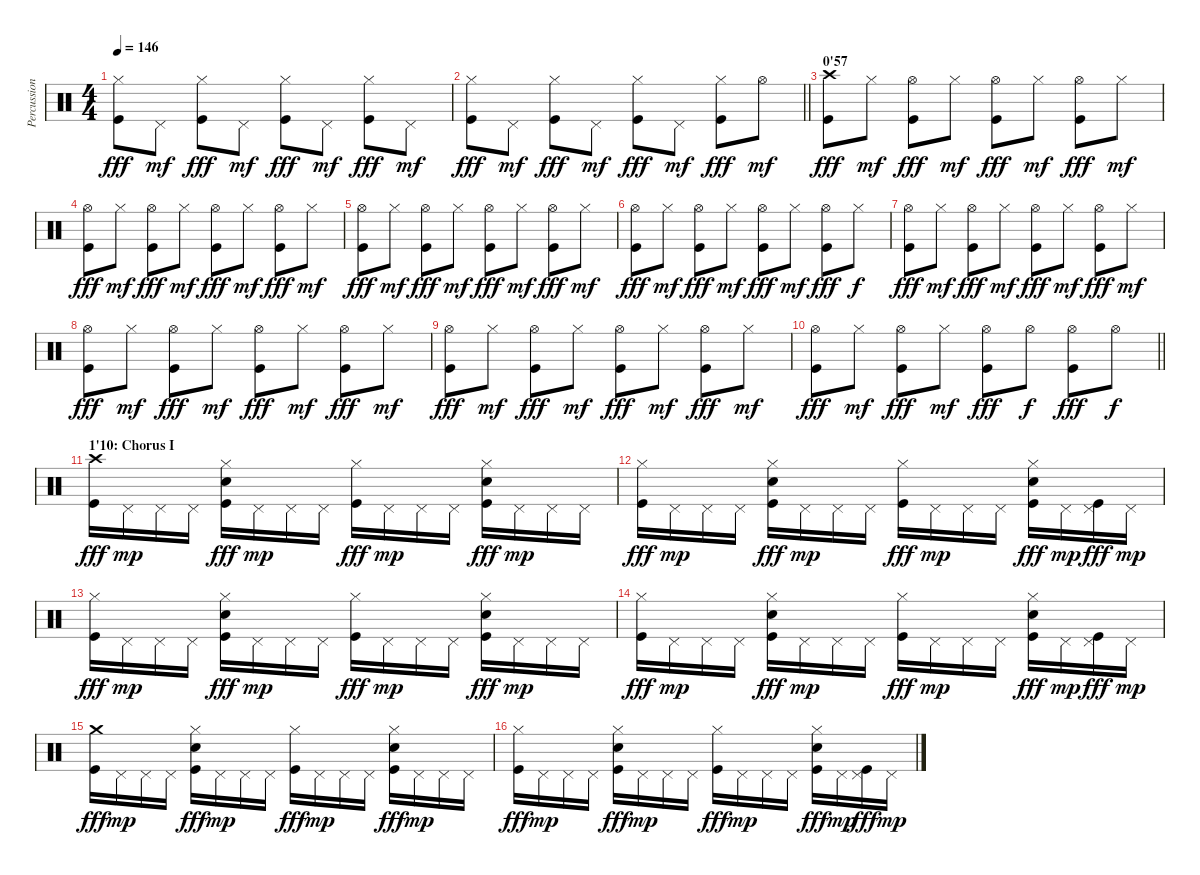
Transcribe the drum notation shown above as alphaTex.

\track ("Percussions" "Percussion") {instrument percussion}
\staff {score}
\articulation defaults
\ts (4 4)
\tempo 146
\clef neutral
\ks c
("Hi-Hat (closed)" "Kick (hit)").8{dy fff} "Pedal Hi-Hat (hit)".8{dy mf} ("Hi-Hat (closed)" "Kick (hit)").8{dy fff} "Pedal Hi-Hat (hit)".8{dy mf} ("Hi-Hat (closed)" "Kick (hit)").8{dy fff} "Pedal Hi-Hat (hit)".8{dy mf} ("Hi-Hat (closed)" "Kick (hit)").8{dy fff} "Pedal Hi-Hat (hit)".8{dy mf} |
\barLineRight lightlight
("Hi-Hat (closed)" "Kick (hit)").8{dy fff} "Pedal Hi-Hat (hit)".8{dy mf} ("Hi-Hat (closed)" "Kick (hit)").8{dy fff} "Pedal Hi-Hat (hit)".8{dy mf} ("Hi-Hat (closed)" "Kick (hit)").8{dy fff} "Pedal Hi-Hat (hit)".8{dy mf} ("Hi-Hat (closed)" "Kick (hit)").8{dy fff} "Hi-Hat (open)".8{dy mf} |
\section ("" "0'57")
("Crash high (hit)" "Kick (hit)").8{dy fff} "Hi-Hat (closed)".8{dy mf} ("Hi-Hat (open)" "Kick (hit)").8{dy fff} "Hi-Hat (closed)".8{dy mf} ("Hi-Hat (open)" "Kick (hit)").8{dy fff} "Hi-Hat (closed)".8{dy mf} ("Hi-Hat (open)" "Kick (hit)").8{dy fff} "Hi-Hat (closed)".8{dy mf} |
("Hi-Hat (open)" "Kick (hit)").8{dy fff} "Hi-Hat (closed)".8{dy mf} ("Hi-Hat (open)" "Kick (hit)").8{dy fff} "Hi-Hat (closed)".8{dy mf} ("Hi-Hat (open)" "Kick (hit)").8{dy fff} "Hi-Hat (closed)".8{dy mf} ("Hi-Hat (open)" "Kick (hit)").8{dy fff} "Hi-Hat (closed)".8{dy mf} |
("Hi-Hat (open)" "Kick (hit)").8{dy fff} "Hi-Hat (closed)".8{dy mf} ("Hi-Hat (open)" "Kick (hit)").8{dy fff} "Hi-Hat (closed)".8{dy mf} ("Hi-Hat (open)" "Kick (hit)").8{dy fff} "Hi-Hat (closed)".8{dy mf} ("Hi-Hat (open)" "Kick (hit)").8{dy fff} "Hi-Hat (closed)".8{dy mf} |
("Hi-Hat (open)" "Kick (hit)").8{dy fff} "Hi-Hat (closed)".8{dy mf} ("Hi-Hat (open)" "Kick (hit)").8{dy fff} "Hi-Hat (closed)".8{dy mf} ("Hi-Hat (open)" "Kick (hit)").8{dy fff} "Hi-Hat (closed)".8{dy mf} ("Hi-Hat (open)" "Kick (hit)").8{dy fff} "Hi-Hat (closed)".8{dy f} |
("Hi-Hat (open)" "Kick (hit)").8{dy fff} "Hi-Hat (closed)".8{dy mf} ("Hi-Hat (open)" "Kick (hit)").8{dy fff} "Hi-Hat (closed)".8{dy mf} ("Hi-Hat (open)" "Kick (hit)").8{dy fff} "Hi-Hat (closed)".8{dy mf} ("Hi-Hat (open)" "Kick (hit)").8{dy fff} "Hi-Hat (closed)".8{dy mf} |
("Hi-Hat (open)" "Kick (hit)").8{dy fff} "Hi-Hat (closed)".8{dy mf} ("Hi-Hat (open)" "Kick (hit)").8{dy fff} "Hi-Hat (closed)".8{dy mf} ("Hi-Hat (open)" "Kick (hit)").8{dy fff} "Hi-Hat (closed)".8{dy mf} ("Hi-Hat (open)" "Kick (hit)").8{dy fff} "Hi-Hat (closed)".8{dy mf} |
("Hi-Hat (open)" "Kick (hit)").8{dy fff} "Hi-Hat (closed)".8{dy mf} ("Hi-Hat (open)" "Kick (hit)").8{dy fff} "Hi-Hat (closed)".8{dy mf} ("Hi-Hat (open)" "Kick (hit)").8{dy fff} "Hi-Hat (closed)".8{dy mf} ("Hi-Hat (open)" "Kick (hit)").8{dy fff} "Hi-Hat (closed)".8{dy mf} |
\barLineRight lightlight
("Hi-Hat (open)" "Kick (hit)").8{dy fff} "Hi-Hat (closed)".8{dy mf} ("Hi-Hat (open)" "Kick (hit)").8{dy fff} "Hi-Hat (closed)".8{dy mf} ("Hi-Hat (open)" "Kick (hit)").8{dy fff} "Hi-Hat (open)".8{dy f} ("Hi-Hat (open)" "Kick (hit)").8{dy fff} "Hi-Hat (open)".8{dy f} |
\section ("" "1'10: Chorus I")
("Crash high (hit)" "Kick (hit)").16{dy fff} "Pedal Hi-Hat (hit)".16{dy mp} "Pedal Hi-Hat (hit)".16 "Pedal Hi-Hat (hit)".16 ("Hi-Hat (closed)" "Electric Snare (hit)" "Kick (hit)").16{dy fff} "Pedal Hi-Hat (hit)".16{dy mp} "Pedal Hi-Hat (hit)".16 "Pedal Hi-Hat (hit)".16 ("Hi-Hat (closed)" "Kick (hit)").16{dy fff} "Pedal Hi-Hat (hit)".16{dy mp} "Pedal Hi-Hat (hit)".16 "Pedal Hi-Hat (hit)".16 ("Hi-Hat (closed)" "Electric Snare (hit)" "Kick (hit)").16{dy fff} "Pedal Hi-Hat (hit)".16{dy mp} "Pedal Hi-Hat (hit)".16 "Pedal Hi-Hat (hit)".16 |
("Hi-Hat (closed)" "Kick (hit)").16{dy fff} "Pedal Hi-Hat (hit)".16{dy mp} "Pedal Hi-Hat (hit)".16 "Pedal Hi-Hat (hit)".16 ("Hi-Hat (closed)" "Electric Snare (hit)" "Kick (hit)").16{dy fff} "Pedal Hi-Hat (hit)".16{dy mp} "Pedal Hi-Hat (hit)".16 "Pedal Hi-Hat (hit)".16 ("Hi-Hat (closed)" "Kick (hit)").16{dy fff} "Pedal Hi-Hat (hit)".16{dy mp} "Pedal Hi-Hat (hit)".16 "Pedal Hi-Hat (hit)".16 ("Hi-Hat (closed)" "Electric Snare (hit)" "Kick (hit)").16{dy fff} "Pedal Hi-Hat (hit)".16{dy mp} ("Pedal Hi-Hat (hit)" "Kick (hit)").16{dy fff} "Pedal Hi-Hat (hit)".16{dy mp} |
("Hi-Hat (closed)" "Kick (hit)").16{dy fff} "Pedal Hi-Hat (hit)".16{dy mp} "Pedal Hi-Hat (hit)".16 "Pedal Hi-Hat (hit)".16 ("Hi-Hat (closed)" "Electric Snare (hit)" "Kick (hit)").16{dy fff} "Pedal Hi-Hat (hit)".16{dy mp} "Pedal Hi-Hat (hit)".16 "Pedal Hi-Hat (hit)".16 ("Hi-Hat (closed)" "Kick (hit)").16{dy fff} "Pedal Hi-Hat (hit)".16{dy mp} "Pedal Hi-Hat (hit)".16 "Pedal Hi-Hat (hit)".16 ("Hi-Hat (closed)" "Electric Snare (hit)" "Kick (hit)").16{dy fff} "Pedal Hi-Hat (hit)".16{dy mp} "Pedal Hi-Hat (hit)".16 "Pedal Hi-Hat (hit)".16 |
("Hi-Hat (closed)" "Kick (hit)").16{dy fff} "Pedal Hi-Hat (hit)".16{dy mp} "Pedal Hi-Hat (hit)".16 "Pedal Hi-Hat (hit)".16 ("Hi-Hat (closed)" "Electric Snare (hit)" "Kick (hit)").16{dy fff} "Pedal Hi-Hat (hit)".16{dy mp} "Pedal Hi-Hat (hit)".16 "Pedal Hi-Hat (hit)".16 ("Hi-Hat (closed)" "Kick (hit)").16{dy fff} "Pedal Hi-Hat (hit)".16{dy mp} "Pedal Hi-Hat (hit)".16 "Pedal Hi-Hat (hit)".16 ("Hi-Hat (closed)" "Electric Snare (hit)" "Kick (hit)").16{dy fff} "Pedal Hi-Hat (hit)".16{dy mp} ("Pedal Hi-Hat (hit)" "Kick (hit)").16{dy fff} "Pedal Hi-Hat (hit)".16{dy mp} |
("Crash medium (hit)" "Kick (hit)").16{dy fff} "Pedal Hi-Hat (hit)".16{dy mp} "Pedal Hi-Hat (hit)".16 "Pedal Hi-Hat (hit)".16 ("Hi-Hat (closed)" "Electric Snare (hit)" "Kick (hit)").16{dy fff} "Pedal Hi-Hat (hit)".16{dy mp} "Pedal Hi-Hat (hit)".16 "Pedal Hi-Hat (hit)".16 ("Hi-Hat (closed)" "Kick (hit)").16{dy fff} "Pedal Hi-Hat (hit)".16{dy mp} "Pedal Hi-Hat (hit)".16 "Pedal Hi-Hat (hit)".16 ("Hi-Hat (closed)" "Electric Snare (hit)" "Kick (hit)").16{dy fff} "Pedal Hi-Hat (hit)".16{dy mp} "Pedal Hi-Hat (hit)".16 "Pedal Hi-Hat (hit)".16 |
("Hi-Hat (closed)" "Kick (hit)").16{dy fff} "Pedal Hi-Hat (hit)".16{dy mp} "Pedal Hi-Hat (hit)".16 "Pedal Hi-Hat (hit)".16 ("Hi-Hat (closed)" "Electric Snare (hit)" "Kick (hit)").16{dy fff} "Pedal Hi-Hat (hit)".16{dy mp} "Pedal Hi-Hat (hit)".16 "Pedal Hi-Hat (hit)".16 ("Hi-Hat (closed)" "Kick (hit)").16{dy fff} "Pedal Hi-Hat (hit)".16{dy mp} "Pedal Hi-Hat (hit)".16 "Pedal Hi-Hat (hit)".16 ("Hi-Hat (closed)" "Electric Snare (hit)" "Kick (hit)").16{dy fff} "Pedal Hi-Hat (hit)".16{dy mp} ("Pedal Hi-Hat (hit)" "Kick (hit)").16{dy fff} "Pedal Hi-Hat (hit)".16{dy mp}
